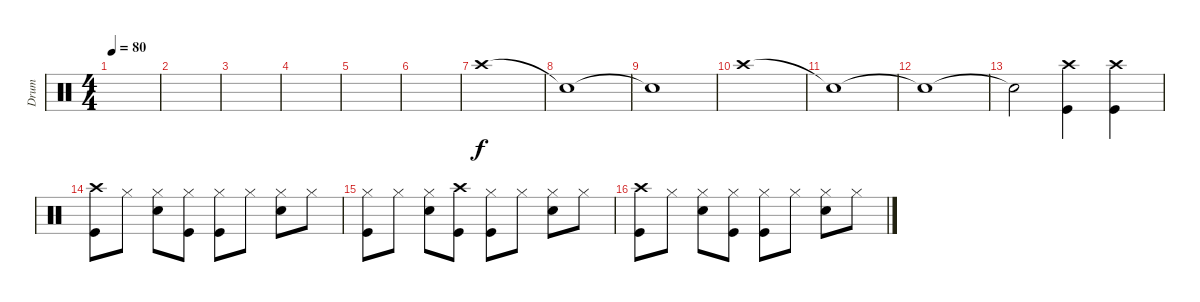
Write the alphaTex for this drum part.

\track ("Drum" "Drum") {instrument percussion}
\staff {score}
\articulation defaults
\ts (4 4)
\tempo 80
\clef neutral
\ks c
|
|
|
|
|
|
"Crash high (hit)".1 |
"Snare (hit)"{t}.1 |
"Snare (hit)"{t}.1 |
"Crash high (hit)".1 |
"Snare (hit)"{t}.1 |
"Snare (hit)"{t}.1 |
"Snare (hit)"{t}.2 ("Crash high (hit)" "Kick (hit)").4 ("Crash high (hit)" "Kick (hit)").4 |
("Crash high (hit)" "Kick (hit)").8 "Hi-Hat (closed)".8 ("Hi-Hat (closed)" "Snare (hit) 2").8 ("Hi-Hat (closed)" "Kick (hit)").8 ("Hi-Hat (closed)" "Kick (hit)").8 "Hi-Hat (closed)".8 ("Hi-Hat (closed)" "Snare (hit) 2").8 "Hi-Hat (closed)".8 |
("Hi-Hat (closed)" "Kick (hit)").8 "Hi-Hat (closed)".8 ("Hi-Hat (closed)" "Snare (hit) 2").8 ("Crash high (hit)" "Kick (hit)").8 ("Hi-Hat (closed)" "Kick (hit)").8 "Hi-Hat (closed)".8 ("Hi-Hat (closed)" "Snare (hit) 2").8 "Hi-Hat (closed)".8 |
("Crash high (hit)" "Kick (hit)").8 "Hi-Hat (closed)".8 ("Hi-Hat (closed)" "Snare (hit) 2").8 ("Hi-Hat (closed)" "Kick (hit)").8 ("Hi-Hat (closed)" "Kick (hit)").8 "Hi-Hat (closed)".8 ("Hi-Hat (closed)" "Snare (hit) 2").8 "Hi-Hat (closed)".8
